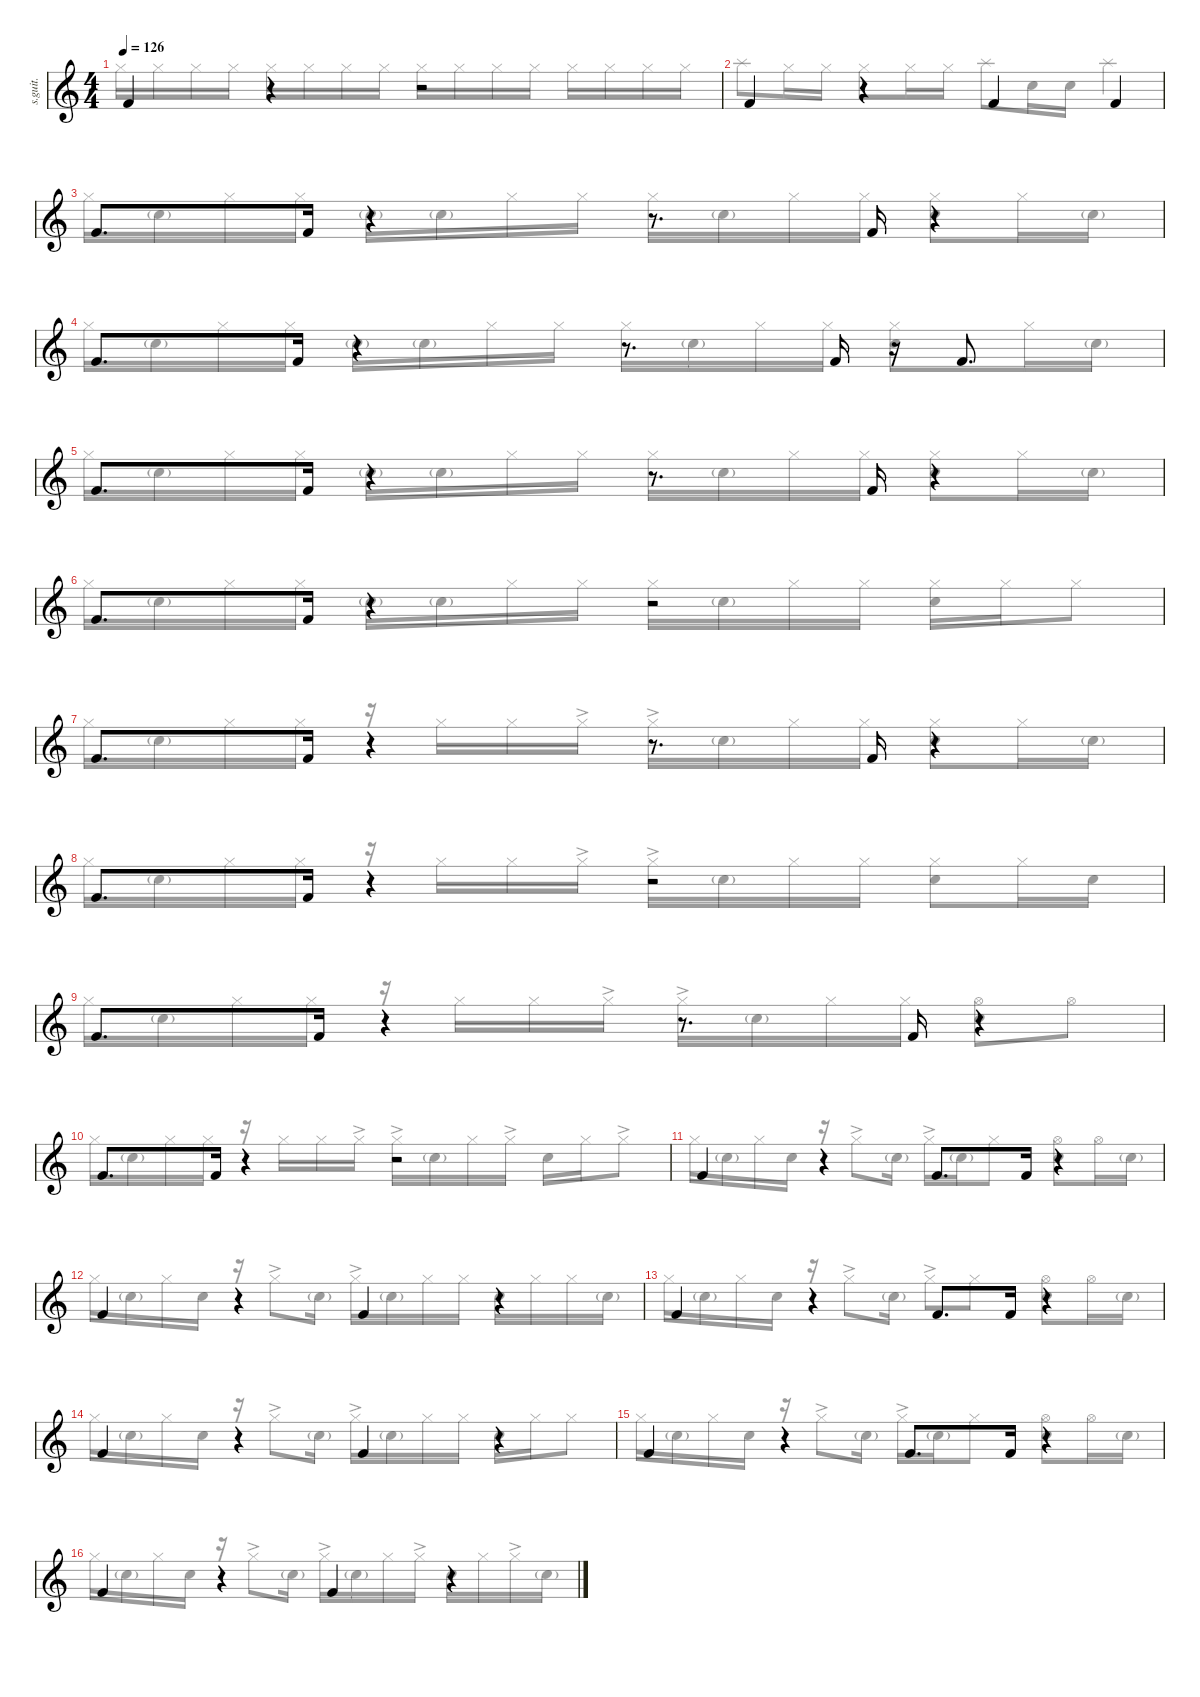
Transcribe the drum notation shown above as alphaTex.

\defaultSystemsLayout 4
\hideDynamics
\bracketExtendMode nobrackets
\track ("Percussion" "s.guit.") {instrument percussion}
\staff {score}
\articulation defaults
\voice
\ts (4 4)
\tempo 126
\clef g2
\ks c "Kick (hit) 2".4{lyrics (0 "") lyrics (1 "") lyrics (2 "") lyrics (3 "") lyrics (4 "") dy mf}
r.4 r.2 |
"Kick (hit) 2".4{lyrics (0 "") lyrics (1 "") lyrics (2 "") lyrics (3 "") lyrics (4 "")} r.4 "Kick (hit) 2".4{lyrics (0 "") lyrics (1 "") lyrics (2 "") lyrics (3 "") lyrics (4 "")} "Kick (hit) 2".4{lyrics (0 "") lyrics (1 "") lyrics (2 "") lyrics (3 "") lyrics (4 "")} |
"Kick (hit) 2".8{d lyrics (0 "") lyrics (1 "") lyrics (2 "") lyrics (3 "") lyrics (4 "")} "Kick (hit) 2".16{lyrics (0 "") lyrics (1 "") lyrics (2 "") lyrics (3 "") lyrics (4 "")} r.4 r.8{d} "Kick (hit) 2".16{lyrics (0 "") lyrics (1 "") lyrics (2 "") lyrics (3 "") lyrics (4 "")} r.4 |
"Kick (hit) 2".8{d lyrics (0 "") lyrics (1 "") lyrics (2 "") lyrics (3 "") lyrics (4 "")} "Kick (hit) 2".16{lyrics (0 "") lyrics (1 "") lyrics (2 "") lyrics (3 "") lyrics (4 "")} r.4 r.8{d} "Kick (hit) 2".16{lyrics (0 "") lyrics (1 "") lyrics (2 "") lyrics (3 "") lyrics (4 "")} r.16 "Kick (hit) 2".8{d lyrics (0 "") lyrics (1 "") lyrics (2 "") lyrics (3 "") lyrics (4 "")} |
"Kick (hit) 2".8{d lyrics (0 "") lyrics (1 "") lyrics (2 "") lyrics (3 "") lyrics (4 "")} "Kick (hit) 2".16{lyrics (0 "") lyrics (1 "") lyrics (2 "") lyrics (3 "") lyrics (4 "")} r.4 r.8{d} "Kick (hit) 2".16{lyrics (0 "") lyrics (1 "") lyrics (2 "") lyrics (3 "") lyrics (4 "")} r.4 |
"Kick (hit) 2".8{d lyrics (0 "") lyrics (1 "") lyrics (2 "") lyrics (3 "") lyrics (4 "")} "Kick (hit) 2".16{lyrics (0 "") lyrics (1 "") lyrics (2 "") lyrics (3 "") lyrics (4 "")} r.4 r.2 |
"Kick (hit) 2".8{d lyrics (0 "") lyrics (1 "") lyrics (2 "") lyrics (3 "") lyrics (4 "")} "Kick (hit) 2".16{lyrics (0 "") lyrics (1 "") lyrics (2 "") lyrics (3 "") lyrics (4 "")} r.4 r.8{d} "Kick (hit) 2".16{lyrics (0 "") lyrics (1 "") lyrics (2 "") lyrics (3 "") lyrics (4 "")} r.4 |
"Kick (hit) 2".8{d lyrics (0 "") lyrics (1 "") lyrics (2 "") lyrics (3 "") lyrics (4 "")} "Kick (hit) 2".16{lyrics (0 "") lyrics (1 "") lyrics (2 "") lyrics (3 "") lyrics (4 "")} r.4 r.2 |
"Kick (hit) 2".8{d lyrics (0 "") lyrics (1 "") lyrics (2 "") lyrics (3 "") lyrics (4 "")} "Kick (hit) 2".16{lyrics (0 "") lyrics (1 "") lyrics (2 "") lyrics (3 "") lyrics (4 "")} r.4 r.8{d} "Kick (hit) 2".16{lyrics (0 "") lyrics (1 "") lyrics (2 "") lyrics (3 "") lyrics (4 "")} r.4 |
"Kick (hit) 2".8{d lyrics (0 "") lyrics (1 "") lyrics (2 "") lyrics (3 "") lyrics (4 "")} "Kick (hit) 2".16{lyrics (0 "") lyrics (1 "") lyrics (2 "") lyrics (3 "") lyrics (4 "")} r.4 r.2 |
"Kick (hit) 2".4{lyrics (0 "") lyrics (1 "") lyrics (2 "") lyrics (3 "") lyrics (4 "")} r.4 "Kick (hit) 2".8{d lyrics (0 "") lyrics (1 "") lyrics (2 "") lyrics (3 "") lyrics (4 "")} "Kick (hit) 2".16{lyrics (0 "") lyrics (1 "") lyrics (2 "") lyrics (3 "") lyrics (4 "")} r.4 |
"Kick (hit) 2".4{lyrics (0 "") lyrics (1 "") lyrics (2 "") lyrics (3 "") lyrics (4 "")} r.4 "Kick (hit) 2".4{lyrics (0 "") lyrics (1 "") lyrics (2 "") lyrics (3 "") lyrics (4 "")} r.4 |
"Kick (hit) 2".4{lyrics (0 "") lyrics (1 "") lyrics (2 "") lyrics (3 "") lyrics (4 "")} r.4 "Kick (hit) 2".8{d lyrics (0 "") lyrics (1 "") lyrics (2 "") lyrics (3 "") lyrics (4 "")} "Kick (hit) 2".16{lyrics (0 "") lyrics (1 "") lyrics (2 "") lyrics (3 "") lyrics (4 "")} r.4 |
"Kick (hit) 2".4{lyrics (0 "") lyrics (1 "") lyrics (2 "") lyrics (3 "") lyrics (4 "")} r.4 "Kick (hit) 2".4{lyrics (0 "") lyrics (1 "") lyrics (2 "") lyrics (3 "") lyrics (4 "")} r.4 |
"Kick (hit) 2".4{lyrics (0 "") lyrics (1 "") lyrics (2 "") lyrics (3 "") lyrics (4 "")} r.4 "Kick (hit) 2".8{d lyrics (0 "") lyrics (1 "") lyrics (2 "") lyrics (3 "") lyrics (4 "")} "Kick (hit) 2".16{lyrics (0 "") lyrics (1 "") lyrics (2 "") lyrics (3 "") lyrics (4 "")} r.4 |
"Kick (hit) 2".4{lyrics (0 "") lyrics (1 "") lyrics (2 "") lyrics (3 "") lyrics (4 "")} r.4 "Kick (hit) 2".4{lyrics (0 "") lyrics (1 "") lyrics (2 "") lyrics (3 "") lyrics (4 "")} r.4
\voice
\clef g2
\ottava regular
\simile none
\ks c "Hi-Hat (closed)".16{lyrics (0 "") lyrics (1 "") lyrics (2 "") lyrics (3 "") lyrics (4 "") dy mf} "Hi-Hat (closed)".16{lyrics (0 "") lyrics (1 "") lyrics (2 "") lyrics (3 "") lyrics (4 "")} "Hi-Hat (closed)".16{lyrics (0 "") lyrics (1 "") lyrics (2 "") lyrics (3 "") lyrics (4 "")} "Hi-Hat (closed)".16{lyrics (0 "") lyrics (1 "") lyrics (2 "") lyrics (3 "") lyrics (4 "")} "Hi-Hat (closed)".16{lyrics (0 "") lyrics (1 "") lyrics (2 "") lyrics (3 "") lyrics (4 "")} "Hi-Hat (closed)".16{lyrics (0 "") lyrics (1 "") lyrics (2 "") lyrics (3 "") lyrics (4 "")} "Hi-Hat (closed)".16{lyrics (0 "") lyrics (1 "") lyrics (2 "") lyrics (3 "") lyrics (4 "")} "Hi-Hat (closed)".16{lyrics (0 "") lyrics (1 "") lyrics (2 "") lyrics (3 "") lyrics (4 "")} "Hi-Hat (closed)".16{lyrics (0 "") lyrics (1 "") lyrics (2 "") lyrics (3 "") lyrics (4 "")} "Hi-Hat (closed)".16{lyrics (0 "") lyrics (1 "") lyrics (2 "") lyrics (3 "") lyrics (4 "")} "Hi-Hat (closed)".16{lyrics (0 "") lyrics (1 "") lyrics (2 "") lyrics (3 "") lyrics (4 "")} "Hi-Hat (closed)".16{lyrics (0 "") lyrics (1 "") lyrics (2 "") lyrics (3 "") lyrics (4 "")} "Hi-Hat (closed)".16{lyrics (0 "") lyrics (1 "") lyrics (2 "") lyrics (3 "") lyrics (4 "")} "Hi-Hat (closed)".16{lyrics (0 "") lyrics (1 "") lyrics (2 "") lyrics (3 "") lyrics (4 "")} "Hi-Hat (closed)".16{lyrics (0 "") lyrics (1 "") lyrics (2 "") lyrics (3 "") lyrics (4 "")} "Hi-Hat (closed)".16{lyrics (0 "") lyrics (1 "") lyrics (2 "") lyrics (3 "") lyrics (4 "")}
|
"Splash (hit)".8{lyrics (0 "") lyrics (1 "") lyrics (2 "") lyrics (3 "") lyrics (4 "")} "Hi-Hat (closed)".16{lyrics (0 "") lyrics (1 "") lyrics (2 "") lyrics (3 "") lyrics (4 "")} "Hi-Hat (closed)".16{lyrics (0 "") lyrics (1 "") lyrics (2 "") lyrics (3 "") lyrics (4 "")} "Hi-Hat (closed)".8{lyrics (0 "") lyrics (1 "") lyrics (2 "") lyrics (3 "") lyrics (4 "")} "Hi-Hat (closed)".16{lyrics (0 "") lyrics (1 "") lyrics (2 "") lyrics (3 "") lyrics (4 "")} "Hi-Hat (closed)".16{lyrics (0 "") lyrics (1 "") lyrics (2 "") lyrics (3 "") lyrics (4 "")} "Splash (hit)".8{lyrics (0 "") lyrics (1 "") lyrics (2 "") lyrics (3 "") lyrics (4 "")} "Snare (hit) 2".16{lyrics (0 "") lyrics (1 "") lyrics (2 "") lyrics (3 "") lyrics (4 "")} "Snare (hit) 2".16{lyrics (0 "") lyrics (1 "") lyrics (2 "") lyrics (3 "") lyrics (4 "")} "Splash (hit)".4{lyrics (0 "") lyrics (1 "") lyrics (2 "") lyrics (3 "") lyrics (4 "")} |
"Hi-Hat (closed)".16{lyrics (0 "") lyrics (1 "") lyrics (2 "") lyrics (3 "") lyrics (4 "")} "Snare (hit) 2"{g}.16{lyrics (0 "") lyrics (1 "") lyrics (2 "") lyrics (3 "") lyrics (4 "")} "Hi-Hat (closed)".16{lyrics (0 "") lyrics (1 "") lyrics (2 "") lyrics (3 "") lyrics (4 "")} "Hi-Hat (closed)".16{lyrics (0 "") lyrics (1 "") lyrics (2 "") lyrics (3 "") lyrics (4 "")} "Snare (hit) 2"{g}.16{lyrics (0 "") lyrics (1 "") lyrics (2 "") lyrics (3 "") lyrics (4 "")} "Snare (hit) 2"{g}.16{lyrics (0 "") lyrics (1 "") lyrics (2 "") lyrics (3 "") lyrics (4 "")} "Hi-Hat (closed)".16{lyrics (0 "") lyrics (1 "") lyrics (2 "") lyrics (3 "") lyrics (4 "")} "Hi-Hat (closed)".16{lyrics (0 "") lyrics (1 "") lyrics (2 "") lyrics (3 "") lyrics (4 "")} "Hi-Hat (closed)".16{lyrics (0 "") lyrics (1 "") lyrics (2 "") lyrics (3 "") lyrics (4 "")} "Snare (hit) 2"{g}.16{lyrics (0 "") lyrics (1 "") lyrics (2 "") lyrics (3 "") lyrics (4 "")} "Hi-Hat (closed)".16{lyrics (0 "") lyrics (1 "") lyrics (2 "") lyrics (3 "") lyrics (4 "")} "Hi-Hat (closed)".16{lyrics (0 "") lyrics (1 "") lyrics (2 "") lyrics (3 "") lyrics (4 "")} ("Hi-Hat (closed)" "Snare (hit) 2").8{lyrics (0 "") lyrics (1 "") lyrics (2 "") lyrics (3 "") lyrics (4 "")} "Hi-Hat (closed)".16{lyrics (0 "") lyrics (1 "") lyrics (2 "") lyrics (3 "") lyrics (4 "")} "Snare (hit) 2"{g}.16{lyrics (0 "") lyrics (1 "") lyrics (2 "") lyrics (3 "") lyrics (4 "")} |
"Hi-Hat (closed)".16{lyrics (0 "") lyrics (1 "") lyrics (2 "") lyrics (3 "") lyrics (4 "")} "Snare (hit) 2"{g}.16{lyrics (0 "") lyrics (1 "") lyrics (2 "") lyrics (3 "") lyrics (4 "")} "Hi-Hat (closed)".16{lyrics (0 "") lyrics (1 "") lyrics (2 "") lyrics (3 "") lyrics (4 "")} "Hi-Hat (closed)".16{lyrics (0 "") lyrics (1 "") lyrics (2 "") lyrics (3 "") lyrics (4 "")} "Snare (hit) 2"{g}.16{lyrics (0 "") lyrics (1 "") lyrics (2 "") lyrics (3 "") lyrics (4 "")} "Snare (hit) 2"{g}.16{lyrics (0 "") lyrics (1 "") lyrics (2 "") lyrics (3 "") lyrics (4 "")} "Hi-Hat (closed)".16{lyrics (0 "") lyrics (1 "") lyrics (2 "") lyrics (3 "") lyrics (4 "")} "Hi-Hat (closed)".16{lyrics (0 "") lyrics (1 "") lyrics (2 "") lyrics (3 "") lyrics (4 "")} "Hi-Hat (closed)".16{lyrics (0 "") lyrics (1 "") lyrics (2 "") lyrics (3 "") lyrics (4 "")} "Snare (hit) 2"{g}.16{lyrics (0 "") lyrics (1 "") lyrics (2 "") lyrics (3 "") lyrics (4 "")} "Hi-Hat (closed)".16{lyrics (0 "") lyrics (1 "") lyrics (2 "") lyrics (3 "") lyrics (4 "")} "Hi-Hat (closed)".16{lyrics (0 "") lyrics (1 "") lyrics (2 "") lyrics (3 "") lyrics (4 "")} ("Hi-Hat (closed)" "Snare (hit) 2").8{lyrics (0 "") lyrics (1 "") lyrics (2 "") lyrics (3 "") lyrics (4 "")} "Hi-Hat (closed)".16{lyrics (0 "") lyrics (1 "") lyrics (2 "") lyrics (3 "") lyrics (4 "")} "Snare (hit) 2"{g}.16{lyrics (0 "") lyrics (1 "") lyrics (2 "") lyrics (3 "") lyrics (4 "")} |
"Hi-Hat (closed)".16{lyrics (0 "") lyrics (1 "") lyrics (2 "") lyrics (3 "") lyrics (4 "")} "Snare (hit) 2"{g}.16{lyrics (0 "") lyrics (1 "") lyrics (2 "") lyrics (3 "") lyrics (4 "")} "Hi-Hat (closed)".16{lyrics (0 "") lyrics (1 "") lyrics (2 "") lyrics (3 "") lyrics (4 "")} "Hi-Hat (closed)".16{lyrics (0 "") lyrics (1 "") lyrics (2 "") lyrics (3 "") lyrics (4 "")} "Snare (hit) 2"{g}.16{lyrics (0 "") lyrics (1 "") lyrics (2 "") lyrics (3 "") lyrics (4 "")} "Snare (hit) 2"{g}.16{lyrics (0 "") lyrics (1 "") lyrics (2 "") lyrics (3 "") lyrics (4 "")} "Hi-Hat (closed)".16{lyrics (0 "") lyrics (1 "") lyrics (2 "") lyrics (3 "") lyrics (4 "")} "Hi-Hat (closed)".16{lyrics (0 "") lyrics (1 "") lyrics (2 "") lyrics (3 "") lyrics (4 "")} "Hi-Hat (closed)".16{lyrics (0 "") lyrics (1 "") lyrics (2 "") lyrics (3 "") lyrics (4 "")} "Snare (hit) 2"{g}.16{lyrics (0 "") lyrics (1 "") lyrics (2 "") lyrics (3 "") lyrics (4 "")} "Hi-Hat (closed)".16{lyrics (0 "") lyrics (1 "") lyrics (2 "") lyrics (3 "") lyrics (4 "")} "Hi-Hat (closed)".16{lyrics (0 "") lyrics (1 "") lyrics (2 "") lyrics (3 "") lyrics (4 "")} ("Hi-Hat (closed)" "Snare (hit) 2").8{lyrics (0 "") lyrics (1 "") lyrics (2 "") lyrics (3 "") lyrics (4 "")} "Hi-Hat (closed)".16{lyrics (0 "") lyrics (1 "") lyrics (2 "") lyrics (3 "") lyrics (4 "")} "Snare (hit) 2"{g}.16{lyrics (0 "") lyrics (1 "") lyrics (2 "") lyrics (3 "") lyrics (4 "")} |
"Hi-Hat (closed)".16{lyrics (0 "") lyrics (1 "") lyrics (2 "") lyrics (3 "") lyrics (4 "")} "Snare (hit) 2"{g}.16{lyrics (0 "") lyrics (1 "") lyrics (2 "") lyrics (3 "") lyrics (4 "")} "Hi-Hat (closed)".16{lyrics (0 "") lyrics (1 "") lyrics (2 "") lyrics (3 "") lyrics (4 "")} "Hi-Hat (closed)".16{lyrics (0 "") lyrics (1 "") lyrics (2 "") lyrics (3 "") lyrics (4 "")} "Snare (hit) 2"{g}.16{lyrics (0 "") lyrics (1 "") lyrics (2 "") lyrics (3 "") lyrics (4 "")} "Snare (hit) 2"{g}.16{lyrics (0 "") lyrics (1 "") lyrics (2 "") lyrics (3 "") lyrics (4 "")} "Hi-Hat (closed)".16{lyrics (0 "") lyrics (1 "") lyrics (2 "") lyrics (3 "") lyrics (4 "")} "Hi-Hat (closed)".16{lyrics (0 "") lyrics (1 "") lyrics (2 "") lyrics (3 "") lyrics (4 "")} "Hi-Hat (closed)".16{lyrics (0 "") lyrics (1 "") lyrics (2 "") lyrics (3 "") lyrics (4 "")} "Snare (hit) 2"{g}.16{lyrics (0 "") lyrics (1 "") lyrics (2 "") lyrics (3 "") lyrics (4 "")} "Hi-Hat (closed)".16{lyrics (0 "") lyrics (1 "") lyrics (2 "") lyrics (3 "") lyrics (4 "")} "Hi-Hat (closed)".16{lyrics (0 "") lyrics (1 "") lyrics (2 "") lyrics (3 "") lyrics (4 "")} ("Hi-Hat (closed)" "Snare (hit) 2").16{lyrics (0 "") lyrics (1 "") lyrics (2 "") lyrics (3 "") lyrics (4 "")} "Hi-Hat (closed)".16{lyrics (0 "") lyrics (1 "") lyrics (2 "") lyrics (3 "") lyrics (4 "")} "Hi-Hat (closed)".8{lyrics (0 "") lyrics (1 "") lyrics (2 "") lyrics (3 "") lyrics (4 "")} |
"Hi-Hat (closed)".16{lyrics (0 "") lyrics (1 "") lyrics (2 "") lyrics (3 "") lyrics (4 "")} "Snare (hit) 2"{g}.16{lyrics (0 "") lyrics (1 "") lyrics (2 "") lyrics (3 "") lyrics (4 "")} "Hi-Hat (closed)".16{lyrics (0 "") lyrics (1 "") lyrics (2 "") lyrics (3 "") lyrics (4 "")} "Hi-Hat (closed)".16{lyrics (0 "") lyrics (1 "") lyrics (2 "") lyrics (3 "") lyrics (4 "")} r.16 "Hi-Hat (closed)".16{lyrics (0 "") lyrics (1 "") lyrics (2 "") lyrics (3 "") lyrics (4 "")} "Hi-Hat (closed)".16{lyrics (0 "") lyrics (1 "") lyrics (2 "") lyrics (3 "") lyrics (4 "")} "Hi-Hat (closed)"{ac}.16{lyrics (0 "") lyrics (1 "") lyrics (2 "") lyrics (3 "") lyrics (4 "")} "Hi-Hat (closed)"{ac}.16{lyrics (0 "") lyrics (1 "") lyrics (2 "") lyrics (3 "") lyrics (4 "")} "Snare (hit) 2"{g}.16{lyrics (0 "") lyrics (1 "") lyrics (2 "") lyrics (3 "") lyrics (4 "")} "Hi-Hat (closed)".16{lyrics (0 "") lyrics (1 "") lyrics (2 "") lyrics (3 "") lyrics (4 "")} "Hi-Hat (closed)".16{lyrics (0 "") lyrics (1 "") lyrics (2 "") lyrics (3 "") lyrics (4 "")} ("Hi-Hat (closed)" "Snare (hit) 2").8{lyrics (0 "") lyrics (1 "") lyrics (2 "") lyrics (3 "") lyrics (4 "")} "Hi-Hat (closed)".16{lyrics (0 "") lyrics (1 "") lyrics (2 "") lyrics (3 "") lyrics (4 "")} "Snare (hit) 2"{g}.16{lyrics (0 "") lyrics (1 "") lyrics (2 "") lyrics (3 "") lyrics (4 "")} |
"Hi-Hat (closed)".16{lyrics (0 "") lyrics (1 "") lyrics (2 "") lyrics (3 "") lyrics (4 "")} "Snare (hit) 2"{g}.16{lyrics (0 "") lyrics (1 "") lyrics (2 "") lyrics (3 "") lyrics (4 "")} "Hi-Hat (closed)".16{lyrics (0 "") lyrics (1 "") lyrics (2 "") lyrics (3 "") lyrics (4 "")} "Hi-Hat (closed)".16{lyrics (0 "") lyrics (1 "") lyrics (2 "") lyrics (3 "") lyrics (4 "")} r.16 "Hi-Hat (closed)".16{lyrics (0 "") lyrics (1 "") lyrics (2 "") lyrics (3 "") lyrics (4 "")} "Hi-Hat (closed)".16{lyrics (0 "") lyrics (1 "") lyrics (2 "") lyrics (3 "") lyrics (4 "")} "Hi-Hat (closed)"{ac}.16{lyrics (0 "") lyrics (1 "") lyrics (2 "") lyrics (3 "") lyrics (4 "")} "Hi-Hat (closed)"{ac}.16{lyrics (0 "") lyrics (1 "") lyrics (2 "") lyrics (3 "") lyrics (4 "")} "Snare (hit) 2"{g}.16{lyrics (0 "") lyrics (1 "") lyrics (2 "") lyrics (3 "") lyrics (4 "")} "Hi-Hat (closed)".16{lyrics (0 "") lyrics (1 "") lyrics (2 "") lyrics (3 "") lyrics (4 "")} "Hi-Hat (closed)".16{lyrics (0 "") lyrics (1 "") lyrics (2 "") lyrics (3 "") lyrics (4 "")} ("Hi-Hat (closed)" "Snare (hit) 2").8{lyrics (0 "") lyrics (1 "") lyrics (2 "") lyrics (3 "") lyrics (4 "")} "Hi-Hat (closed)".16{lyrics (0 "") lyrics (1 "") lyrics (2 "") lyrics (3 "") lyrics (4 "")} "Snare (hit) 2".16{lyrics (0 "") lyrics (1 "") lyrics (2 "") lyrics (3 "") lyrics (4 "")} |
"Hi-Hat (closed)".16{lyrics (0 "") lyrics (1 "") lyrics (2 "") lyrics (3 "") lyrics (4 "")} "Snare (hit) 2"{g}.16{lyrics (0 "") lyrics (1 "") lyrics (2 "") lyrics (3 "") lyrics (4 "")} "Hi-Hat (closed)".16{lyrics (0 "") lyrics (1 "") lyrics (2 "") lyrics (3 "") lyrics (4 "")} "Hi-Hat (closed)".16{lyrics (0 "") lyrics (1 "") lyrics (2 "") lyrics (3 "") lyrics (4 "")} r.16 "Hi-Hat (closed)".16{lyrics (0 "") lyrics (1 "") lyrics (2 "") lyrics (3 "") lyrics (4 "")} "Hi-Hat (closed)".16{lyrics (0 "") lyrics (1 "") lyrics (2 "") lyrics (3 "") lyrics (4 "")} "Hi-Hat (closed)"{ac}.16{lyrics (0 "") lyrics (1 "") lyrics (2 "") lyrics (3 "") lyrics (4 "")} "Hi-Hat (closed)"{ac}.16{lyrics (0 "") lyrics (1 "") lyrics (2 "") lyrics (3 "") lyrics (4 "")} "Snare (hit) 2"{g}.16{lyrics (0 "") lyrics (1 "") lyrics (2 "") lyrics (3 "") lyrics (4 "")} "Hi-Hat (closed)".16{lyrics (0 "") lyrics (1 "") lyrics (2 "") lyrics (3 "") lyrics (4 "")} "Hi-Hat (closed)".16{lyrics (0 "") lyrics (1 "") lyrics (2 "") lyrics (3 "") lyrics (4 "")} ("Hi-Hat (open)" "Snare (hit) 2").8{lyrics (0 "") lyrics (1 "") lyrics (2 "") lyrics (3 "") lyrics (4 "")} "Hi-Hat (open)".8{lyrics (0 "") lyrics (1 "") lyrics (2 "") lyrics (3 "") lyrics (4 "")} |
"Hi-Hat (closed)".16{lyrics (0 "") lyrics (1 "") lyrics (2 "") lyrics (3 "") lyrics (4 "")} "Snare (hit) 2"{g}.16{lyrics (0 "") lyrics (1 "") lyrics (2 "") lyrics (3 "") lyrics (4 "")} "Hi-Hat (closed)".16{lyrics (0 "") lyrics (1 "") lyrics (2 "") lyrics (3 "") lyrics (4 "")} "Hi-Hat (closed)".16{lyrics (0 "") lyrics (1 "") lyrics (2 "") lyrics (3 "") lyrics (4 "")} r.16 "Hi-Hat (closed)".16{lyrics (0 "") lyrics (1 "") lyrics (2 "") lyrics (3 "") lyrics (4 "")} "Hi-Hat (closed)".16{lyrics (0 "") lyrics (1 "") lyrics (2 "") lyrics (3 "") lyrics (4 "")} "Hi-Hat (closed)"{ac}.16{lyrics (0 "") lyrics (1 "") lyrics (2 "") lyrics (3 "") lyrics (4 "")} "Hi-Hat (closed)"{ac}.16{lyrics (0 "") lyrics (1 "") lyrics (2 "") lyrics (3 "") lyrics (4 "")} "Snare (hit) 2"{g}.16{lyrics (0 "") lyrics (1 "") lyrics (2 "") lyrics (3 "") lyrics (4 "")} "Hi-Hat (closed)".16{lyrics (0 "") lyrics (1 "") lyrics (2 "") lyrics (3 "") lyrics (4 "")} "Hi-Hat (closed)"{ac}.16{lyrics (0 "") lyrics (1 "") lyrics (2 "") lyrics (3 "") lyrics (4 "")} "Snare (hit) 2".16{lyrics (0 "") lyrics (1 "") lyrics (2 "") lyrics (3 "") lyrics (4 "")} "Hi-Hat (closed)".16{lyrics (0 "") lyrics (1 "") lyrics (2 "") lyrics (3 "") lyrics (4 "")} "Hi-Hat (closed)"{ac}.8{lyrics (0 "") lyrics (1 "") lyrics (2 "") lyrics (3 "") lyrics (4 "")} |
"Hi-Hat (closed)".16{lyrics (0 "") lyrics (1 "") lyrics (2 "") lyrics (3 "") lyrics (4 "")} "Snare (hit) 2"{g}.16{lyrics (0 "") lyrics (1 "") lyrics (2 "") lyrics (3 "") lyrics (4 "")} "Hi-Hat (closed)".16{lyrics (0 "") lyrics (1 "") lyrics (2 "") lyrics (3 "") lyrics (4 "")} "Snare (hit) 2".16{lyrics (0 "") lyrics (1 "") lyrics (2 "") lyrics (3 "") lyrics (4 "")} r.16 "Hi-Hat (closed)"{ac}.8{lyrics (0 "") lyrics (1 "") lyrics (2 "") lyrics (3 "") lyrics (4 "")} "Snare (hit) 2"{g}.16{lyrics (0 "") lyrics (1 "") lyrics (2 "") lyrics (3 "") lyrics (4 "")} "Hi-Hat (closed)"{ac}.16{lyrics (0 "") lyrics (1 "") lyrics (2 "") lyrics (3 "") lyrics (4 "")} "Snare (hit) 2"{g}.16{lyrics (0 "") lyrics (1 "") lyrics (2 "") lyrics (3 "") lyrics (4 "")} "Hi-Hat (closed)".8{lyrics (0 "") lyrics (1 "") lyrics (2 "") lyrics (3 "") lyrics (4 "")} ("Hi-Hat (open)" "Snare (hit) 2").8{lyrics (0 "") lyrics (1 "") lyrics (2 "") lyrics (3 "") lyrics (4 "")} "Hi-Hat (open)".16{lyrics (0 "") lyrics (1 "") lyrics (2 "") lyrics (3 "") lyrics (4 "")} "Snare (hit) 2"{g}.16{lyrics (0 "") lyrics (1 "") lyrics (2 "") lyrics (3 "") lyrics (4 "")} |
"Hi-Hat (closed)".16{lyrics (0 "") lyrics (1 "") lyrics (2 "") lyrics (3 "") lyrics (4 "")} "Snare (hit) 2"{g}.16{lyrics (0 "") lyrics (1 "") lyrics (2 "") lyrics (3 "") lyrics (4 "")} "Hi-Hat (closed)".16{lyrics (0 "") lyrics (1 "") lyrics (2 "") lyrics (3 "") lyrics (4 "")} "Snare (hit) 2".16{lyrics (0 "") lyrics (1 "") lyrics (2 "") lyrics (3 "") lyrics (4 "")} r.16 "Hi-Hat (closed)"{ac}.8{lyrics (0 "") lyrics (1 "") lyrics (2 "") lyrics (3 "") lyrics (4 "")} "Snare (hit) 2"{g}.16{lyrics (0 "") lyrics (1 "") lyrics (2 "") lyrics (3 "") lyrics (4 "")} "Hi-Hat (closed)"{ac}.16{lyrics (0 "") lyrics (1 "") lyrics (2 "") lyrics (3 "") lyrics (4 "")} "Snare (hit) 2"{g}.16{lyrics (0 "") lyrics (1 "") lyrics (2 "") lyrics (3 "") lyrics (4 "")} "Hi-Hat (closed)".16{lyrics (0 "") lyrics (1 "") lyrics (2 "") lyrics (3 "") lyrics (4 "")} "Hi-Hat (closed)".16{lyrics (0 "") lyrics (1 "") lyrics (2 "") lyrics (3 "") lyrics (4 "")} "Snare (hit) 2".16{lyrics (0 "") lyrics (1 "") lyrics (2 "") lyrics (3 "") lyrics (4 "")} "Hi-Hat (closed)".16{lyrics (0 "") lyrics (1 "") lyrics (2 "") lyrics (3 "") lyrics (4 "")} "Hi-Hat (closed)".16{lyrics (0 "") lyrics (1 "") lyrics (2 "") lyrics (3 "") lyrics (4 "")} "Snare (hit) 2"{g}.16{lyrics (0 "") lyrics (1 "") lyrics (2 "") lyrics (3 "") lyrics (4 "")} |
"Hi-Hat (closed)".16{lyrics (0 "") lyrics (1 "") lyrics (2 "") lyrics (3 "") lyrics (4 "")} "Snare (hit) 2"{g}.16{lyrics (0 "") lyrics (1 "") lyrics (2 "") lyrics (3 "") lyrics (4 "")} "Hi-Hat (closed)".16{lyrics (0 "") lyrics (1 "") lyrics (2 "") lyrics (3 "") lyrics (4 "")} "Snare (hit) 2".16{lyrics (0 "") lyrics (1 "") lyrics (2 "") lyrics (3 "") lyrics (4 "")} r.16 "Hi-Hat (closed)"{ac}.8{lyrics (0 "") lyrics (1 "") lyrics (2 "") lyrics (3 "") lyrics (4 "")} "Snare (hit) 2"{g}.16{lyrics (0 "") lyrics (1 "") lyrics (2 "") lyrics (3 "") lyrics (4 "")} "Hi-Hat (closed)"{ac}.8{lyrics (0 "") lyrics (1 "") lyrics (2 "") lyrics (3 "") lyrics (4 "")} "Hi-Hat (closed)".8{lyrics (0 "") lyrics (1 "") lyrics (2 "") lyrics (3 "") lyrics (4 "")} ("Hi-Hat (open)" "Snare (hit) 2").8{lyrics (0 "") lyrics (1 "") lyrics (2 "") lyrics (3 "") lyrics (4 "")} "Hi-Hat (open)".16{lyrics (0 "") lyrics (1 "") lyrics (2 "") lyrics (3 "") lyrics (4 "")} "Snare (hit) 2"{g}.16{lyrics (0 "") lyrics (1 "") lyrics (2 "") lyrics (3 "") lyrics (4 "")} |
"Hi-Hat (closed)".16{lyrics (0 "") lyrics (1 "") lyrics (2 "") lyrics (3 "") lyrics (4 "")} "Snare (hit) 2"{g}.16{lyrics (0 "") lyrics (1 "") lyrics (2 "") lyrics (3 "") lyrics (4 "")} "Hi-Hat (closed)".16{lyrics (0 "") lyrics (1 "") lyrics (2 "") lyrics (3 "") lyrics (4 "")} "Snare (hit) 2".16{lyrics (0 "") lyrics (1 "") lyrics (2 "") lyrics (3 "") lyrics (4 "")} r.16 "Hi-Hat (closed)"{ac}.8{lyrics (0 "") lyrics (1 "") lyrics (2 "") lyrics (3 "") lyrics (4 "")} "Snare (hit) 2"{g}.16{lyrics (0 "") lyrics (1 "") lyrics (2 "") lyrics (3 "") lyrics (4 "")} "Hi-Hat (closed)"{ac}.16{lyrics (0 "") lyrics (1 "") lyrics (2 "") lyrics (3 "") lyrics (4 "")} "Snare (hit) 2"{g}.16{lyrics (0 "") lyrics (1 "") lyrics (2 "") lyrics (3 "") lyrics (4 "")} "Hi-Hat (closed)".16{lyrics (0 "") lyrics (1 "") lyrics (2 "") lyrics (3 "") lyrics (4 "")} "Hi-Hat (closed)".16{lyrics (0 "") lyrics (1 "") lyrics (2 "") lyrics (3 "") lyrics (4 "")} "Snare (hit) 2".16{lyrics (0 "") lyrics (1 "") lyrics (2 "") lyrics (3 "") lyrics (4 "")} "Hi-Hat (closed)".16{lyrics (0 "") lyrics (1 "") lyrics (2 "") lyrics (3 "") lyrics (4 "")} "Hi-Hat (closed)".8{lyrics (0 "") lyrics (1 "") lyrics (2 "") lyrics (3 "") lyrics (4 "")} |
"Hi-Hat (closed)".16{lyrics (0 "") lyrics (1 "") lyrics (2 "") lyrics (3 "") lyrics (4 "")} "Snare (hit) 2"{g}.16{lyrics (0 "") lyrics (1 "") lyrics (2 "") lyrics (3 "") lyrics (4 "")} "Hi-Hat (closed)".16{lyrics (0 "") lyrics (1 "") lyrics (2 "") lyrics (3 "") lyrics (4 "")} "Snare (hit) 2".16{lyrics (0 "") lyrics (1 "") lyrics (2 "") lyrics (3 "") lyrics (4 "")} r.16 "Hi-Hat (closed)"{ac}.8{lyrics (0 "") lyrics (1 "") lyrics (2 "") lyrics (3 "") lyrics (4 "")} "Snare (hit) 2"{g}.16{lyrics (0 "") lyrics (1 "") lyrics (2 "") lyrics (3 "") lyrics (4 "")} "Hi-Hat (closed)"{ac}.16{lyrics (0 "") lyrics (1 "") lyrics (2 "") lyrics (3 "") lyrics (4 "")} "Snare (hit) 2"{g}.16{lyrics (0 "") lyrics (1 "") lyrics (2 "") lyrics (3 "") lyrics (4 "")} "Hi-Hat (closed)".8{lyrics (0 "") lyrics (1 "") lyrics (2 "") lyrics (3 "") lyrics (4 "")} ("Hi-Hat (open)" "Snare (hit) 2").8{lyrics (0 "") lyrics (1 "") lyrics (2 "") lyrics (3 "") lyrics (4 "")} "Hi-Hat (open)".16{lyrics (0 "") lyrics (1 "") lyrics (2 "") lyrics (3 "") lyrics (4 "")} "Snare (hit) 2"{g}.16{lyrics (0 "") lyrics (1 "") lyrics (2 "") lyrics (3 "") lyrics (4 "")} |
"Hi-Hat (closed)".16{lyrics (0 "") lyrics (1 "") lyrics (2 "") lyrics (3 "") lyrics (4 "")} "Snare (hit) 2"{g}.16{lyrics (0 "") lyrics (1 "") lyrics (2 "") lyrics (3 "") lyrics (4 "")} "Hi-Hat (closed)".16{lyrics (0 "") lyrics (1 "") lyrics (2 "") lyrics (3 "") lyrics (4 "")} "Snare (hit) 2".16{lyrics (0 "") lyrics (1 "") lyrics (2 "") lyrics (3 "") lyrics (4 "")} r.16 "Hi-Hat (closed)"{ac}.8{lyrics (0 "") lyrics (1 "") lyrics (2 "") lyrics (3 "") lyrics (4 "")} "Snare (hit) 2"{g}.16{lyrics (0 "") lyrics (1 "") lyrics (2 "") lyrics (3 "") lyrics (4 "")} "Hi-Hat (closed)"{ac}.16{lyrics (0 "") lyrics (1 "") lyrics (2 "") lyrics (3 "") lyrics (4 "")} "Snare (hit) 2"{g}.16{lyrics (0 "") lyrics (1 "") lyrics (2 "") lyrics (3 "") lyrics (4 "")} "Hi-Hat (closed)".16{lyrics (0 "") lyrics (1 "") lyrics (2 "") lyrics (3 "") lyrics (4 "")} "Hi-Hat (closed)"{ac}.16{lyrics (0 "") lyrics (1 "") lyrics (2 "") lyrics (3 "") lyrics (4 "")} "Snare (hit) 2".16{lyrics (0 "") lyrics (1 "") lyrics (2 "") lyrics (3 "") lyrics (4 "")} "Hi-Hat (closed)".16{lyrics (0 "") lyrics (1 "") lyrics (2 "") lyrics (3 "") lyrics (4 "")} "Hi-Hat (closed)"{ac}.16{lyrics (0 "") lyrics (1 "") lyrics (2 "") lyrics (3 "") lyrics (4 "")} "Snare (hit) 2"{g}.16{lyrics (0 "") lyrics (1 "") lyrics (2 "") lyrics (3 "") lyrics (4 "")}
